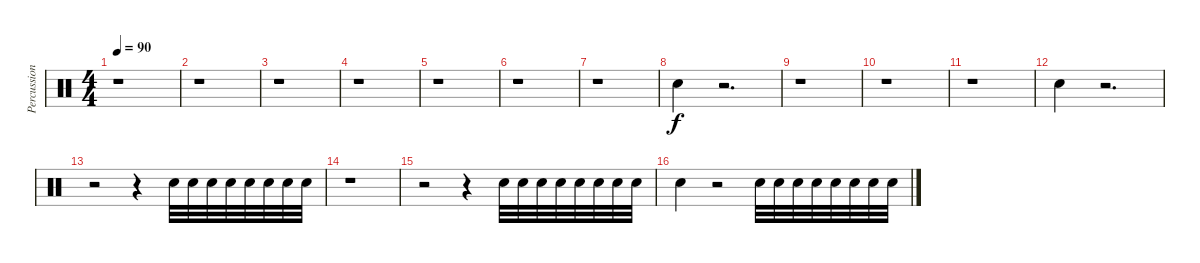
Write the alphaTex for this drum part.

\track ("Percussions" "Percussion") {instrument percussion}
\staff {score}
\articulation defaults
\ts (4 4)
\tempo 90
\clef neutral
\ks c
r.1{dy f} |
r.1 |
r.1 |
r.1 |
r.1 |
r.1 |
r.1 |
"Snare (hit) 2".4 r.2{d} |
r.1 |
r.1 |
r.1 |
"Snare (hit) 2".4 r.2{d} |
r.2 r.4 "Snare (hit) 2".32 "Snare (hit) 2".32 "Snare (hit) 2".32 "Snare (hit) 2".32 "Snare (hit) 2".32 "Snare (hit) 2".32 "Snare (hit) 2".32 "Snare (hit) 2".32 |
r.1 |
r.2 r.4 "Snare (hit) 2".32 "Snare (hit) 2".32 "Snare (hit) 2".32 "Snare (hit) 2".32 "Snare (hit) 2".32 "Snare (hit) 2".32 "Snare (hit) 2".32 "Snare (hit) 2".32 |
"Snare (hit) 2".4 r.2 "Snare (hit) 2".32 "Snare (hit) 2".32 "Snare (hit) 2".32 "Snare (hit) 2".32 "Snare (hit) 2".32 "Snare (hit) 2".32 "Snare (hit) 2".32 "Snare (hit) 2".32
